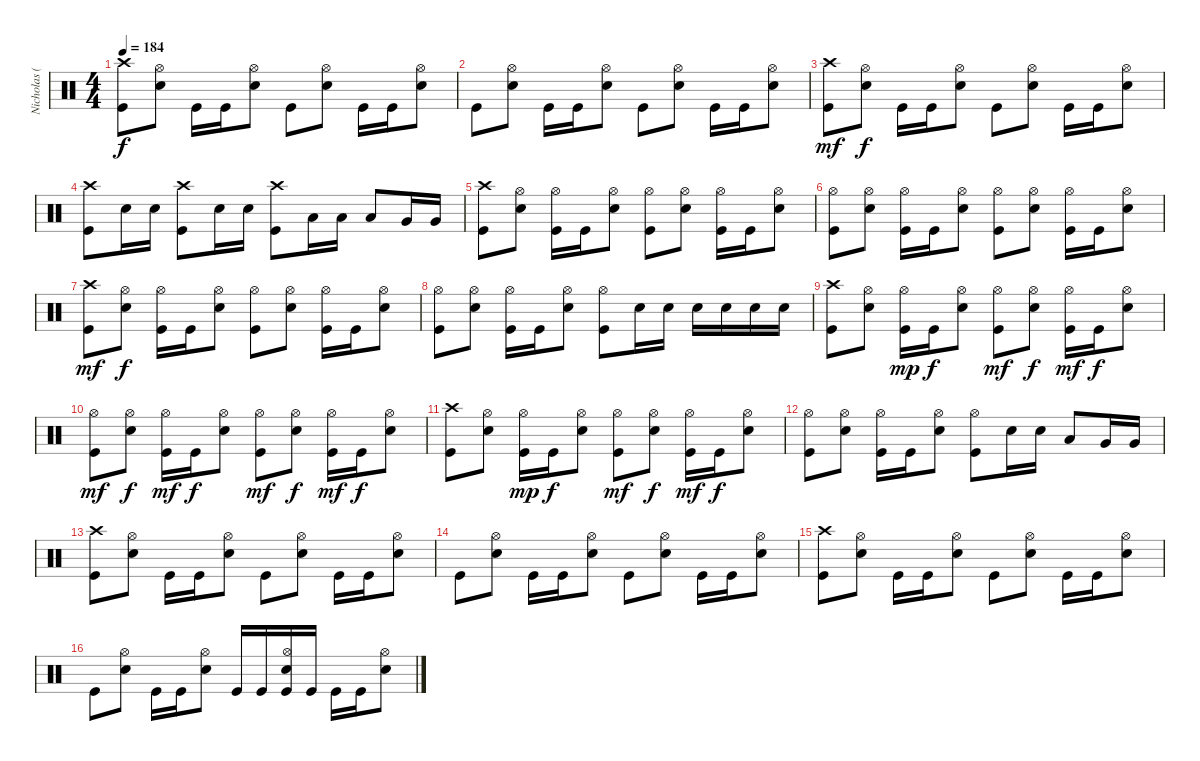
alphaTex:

\track ("Nicholas (Drums)" "Nicholas (") {instrument percussion}
\staff {score}
\articulation defaults
\ts (4 4)
\tempo 184
\clef neutral
\ks c
("Crash high (hit)" "Kick (hit)").8{dy f} ("Hi-Hat (open)" "Electric Snare (hit)").8 "Kick (hit)".16 "Kick (hit)".16 ("Hi-Hat (open)" "Electric Snare (hit)").8 "Kick (hit)".8 ("Hi-Hat (open)" "Electric Snare (hit)").8 "Kick (hit)".16 "Kick (hit)".16 ("Hi-Hat (open)" "Electric Snare (hit)").8 |
"Kick (hit)".8 ("Hi-Hat (open)" "Electric Snare (hit)").8 "Kick (hit)".16 "Kick (hit)".16 ("Hi-Hat (open)" "Electric Snare (hit)").8 "Kick (hit)".8 ("Hi-Hat (open)" "Electric Snare (hit)").8 "Kick (hit)".16 "Kick (hit)".16 ("Hi-Hat (open)" "Electric Snare (hit)").8 |
("Crash high (hit)" "Kick (hit)").8{dy mf} ("Hi-Hat (open)" "Electric Snare (hit)").8{dy f} "Kick (hit)".16 "Kick (hit)".16 ("Hi-Hat (open)" "Electric Snare (hit)").8 "Kick (hit)".8 ("Hi-Hat (open)" "Electric Snare (hit)").8 "Kick (hit)".16 "Kick (hit)".16 ("Hi-Hat (open)" "Electric Snare (hit)").8 |
("Crash high (hit)" "Kick (hit)").8 "Electric Snare (hit)".16 "Electric Snare (hit)".16 ("Crash high (hit)" "Kick (hit)").8 "Electric Snare (hit)".16 "Electric Snare (hit)".16 ("Crash high (hit)" "Kick (hit)").8 "Low Tom (hit)".16 "Low Tom (hit)".16 "Low Tom (hit)".8 "Very Low Tom (hit)".16 "Very Low Tom (hit)".16 |
("Crash high (hit)" "Kick (hit)").8 ("Hi-Hat (open)" "Electric Snare (hit)").8 ("Hi-Hat (open)" "Kick (hit)").16 "Kick (hit)".16 ("Hi-Hat (open)" "Electric Snare (hit)").8 ("Hi-Hat (open)" "Kick (hit)").8 ("Hi-Hat (open)" "Electric Snare (hit)").8 ("Hi-Hat (open)" "Kick (hit)").16 "Kick (hit)".16 ("Hi-Hat (open)" "Electric Snare (hit)").8 |
("Hi-Hat (open)" "Kick (hit)").8 ("Hi-Hat (open)" "Electric Snare (hit)").8 ("Hi-Hat (open)" "Kick (hit)").16 "Kick (hit)".16 ("Hi-Hat (open)" "Electric Snare (hit)").8 ("Hi-Hat (open)" "Kick (hit)").8 ("Hi-Hat (open)" "Electric Snare (hit)").8 ("Hi-Hat (open)" "Kick (hit)").16 "Kick (hit)".16 ("Hi-Hat (open)" "Electric Snare (hit)").8 |
("Crash high (hit)" "Kick (hit)").8{dy mf} ("Hi-Hat (open)" "Electric Snare (hit)").8{dy f} ("Hi-Hat (open)" "Kick (hit)").16 "Kick (hit)".16 ("Hi-Hat (open)" "Electric Snare (hit)").8 ("Hi-Hat (open)" "Kick (hit)").8 ("Hi-Hat (open)" "Electric Snare (hit)").8 ("Hi-Hat (open)" "Kick (hit)").16 "Kick (hit)".16 ("Hi-Hat (open)" "Electric Snare (hit)").8 |
("Hi-Hat (open)" "Kick (hit)").8 ("Hi-Hat (open)" "Electric Snare (hit)").8 ("Hi-Hat (open)" "Kick (hit)").16 "Kick (hit)".16 ("Hi-Hat (open)" "Electric Snare (hit)").8 ("Hi-Hat (open)" "Kick (hit)").8 "Electric Snare (hit)".16 "Electric Snare (hit)".16 "Electric Snare (hit)".16 "Electric Snare (hit)".16 "Electric Snare (hit)".16 "Electric Snare (hit)".16 |
("Crash high (hit)" "Kick (hit)").8 ("Hi-Hat (open)" "Electric Snare (hit)").8 ("Hi-Hat (open)" "Kick (hit)").16{dy mp} "Kick (hit)".16{dy f} ("Hi-Hat (open)" "Electric Snare (hit)").8 ("Hi-Hat (open)" "Kick (hit)").8{dy mf} ("Hi-Hat (open)" "Electric Snare (hit)").8{dy f} ("Hi-Hat (open)" "Kick (hit)").16{dy mf} "Kick (hit)".16{dy f} ("Hi-Hat (open)" "Electric Snare (hit)").8 |
("Hi-Hat (open)" "Kick (hit)").8{dy mf} ("Hi-Hat (open)" "Electric Snare (hit)").8{dy f} ("Hi-Hat (open)" "Kick (hit)").16{dy mf} "Kick (hit)".16{dy f} ("Hi-Hat (open)" "Electric Snare (hit)").8 ("Hi-Hat (open)" "Kick (hit)").8{dy mf} ("Hi-Hat (open)" "Electric Snare (hit)").8{dy f} ("Hi-Hat (open)" "Kick (hit)").16{dy mf} "Kick (hit)".16{dy f} ("Hi-Hat (open)" "Electric Snare (hit)").8 |
("Crash high (hit)" "Kick (hit)").8 ("Hi-Hat (open)" "Electric Snare (hit)").8 ("Hi-Hat (open)" "Kick (hit)").16{dy mp} "Kick (hit)".16{dy f} ("Hi-Hat (open)" "Electric Snare (hit)").8 ("Hi-Hat (open)" "Kick (hit)").8{dy mf} ("Hi-Hat (open)" "Electric Snare (hit)").8{dy f} ("Hi-Hat (open)" "Kick (hit)").16{dy mf} "Kick (hit)".16{dy f} ("Hi-Hat (open)" "Electric Snare (hit)").8 |
("Hi-Hat (open)" "Kick (hit)").8 ("Hi-Hat (open)" "Electric Snare (hit)").8 ("Hi-Hat (open)" "Kick (hit)").16 "Kick (hit)".16 ("Hi-Hat (open)" "Electric Snare (hit)").8 ("Hi-Hat (open)" "Kick (hit)").8 "Electric Snare (hit)".16 "Electric Snare (hit)".16 "Low Tom (hit)".8 "Very Low Tom (hit)".16 "Very Low Tom (hit)".16 |
("Crash high (hit)" "Kick (hit)").8 ("Hi-Hat (open)" "Electric Snare (hit)").8 "Kick (hit)".16 "Kick (hit)".16 ("Hi-Hat (open)" "Electric Snare (hit)").8 "Kick (hit)".8 ("Hi-Hat (open)" "Electric Snare (hit)").8 "Kick (hit)".16 "Kick (hit)".16 ("Hi-Hat (open)" "Electric Snare (hit)").8 |
"Kick (hit)".8 ("Hi-Hat (open)" "Electric Snare (hit)").8 "Kick (hit)".16 "Kick (hit)".16 ("Hi-Hat (open)" "Electric Snare (hit)").8 "Kick (hit)".8 ("Hi-Hat (open)" "Electric Snare (hit)").8 "Kick (hit)".16 "Kick (hit)".16 ("Hi-Hat (open)" "Electric Snare (hit)").8 |
("Crash high (hit)" "Kick (hit)").8 ("Hi-Hat (open)" "Electric Snare (hit)").8 "Kick (hit)".16 "Kick (hit)".16 ("Hi-Hat (open)" "Electric Snare (hit)").8 "Kick (hit)".8 ("Hi-Hat (open)" "Electric Snare (hit)").8 "Kick (hit)".16 "Kick (hit)".16 ("Hi-Hat (open)" "Electric Snare (hit)").8 |
"Kick (hit)".8 ("Hi-Hat (open)" "Electric Snare (hit)").8 "Kick (hit)".16 "Kick (hit)".16 ("Hi-Hat (open)" "Electric Snare (hit)").8 "Kick (hit)".16 "Kick (hit)".16 ("Hi-Hat (open)" "Electric Snare (hit)" "Kick (hit)").16 "Kick (hit)".16 "Kick (hit)".16 "Kick (hit)".16 ("Hi-Hat (open)" "Electric Snare (hit)").8
